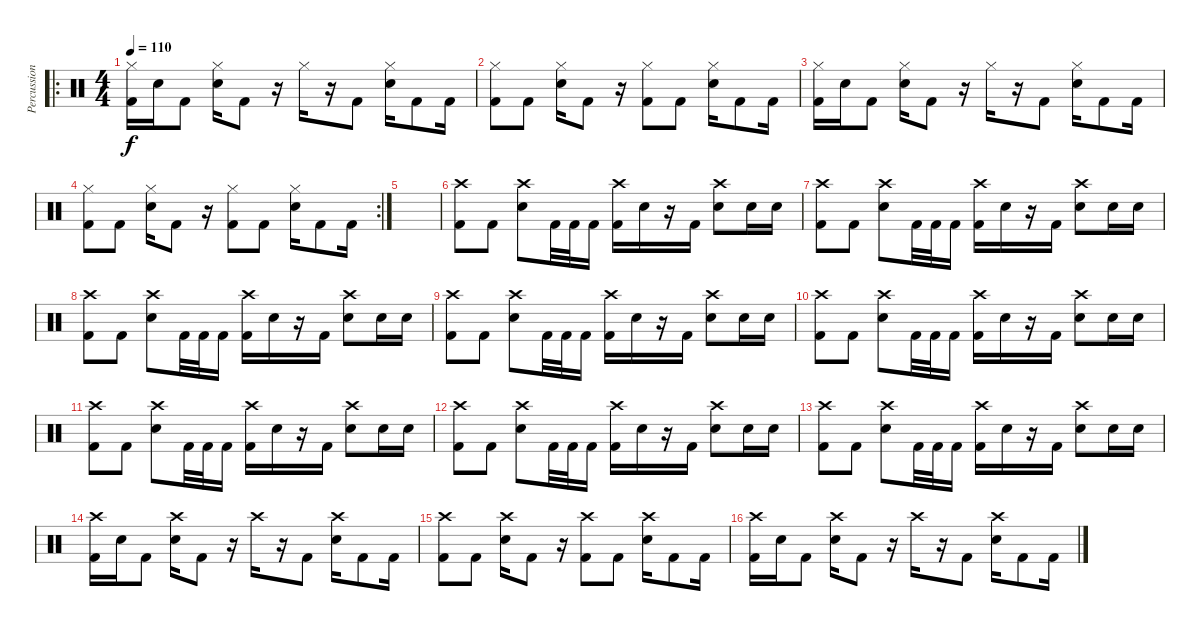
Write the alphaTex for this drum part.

\track ("Percussion" "Percussion") {instrument percussion}
\staff {score}
\articulation defaults
\ro
\ts (4 4)
\tempo 110
\clef neutral
\ks c
("Hi-Hat (closed)" "Kick (hit) 2").16{dy f} "Snare (hit) 2".16 "Kick (hit) 2".8 ("Hi-Hat (closed)" "Snare (hit) 2").16 "Kick (hit) 2".8 r.16 "Hi-Hat (closed)".16 r.16 "Kick (hit) 2".8 ("Hi-Hat (closed)" "Snare (hit) 2").16 "Kick (hit) 2".8 "Kick (hit) 2".16 |
("Hi-Hat (closed)" "Kick (hit) 2").8 "Kick (hit) 2".8 ("Hi-Hat (closed)" "Snare (hit) 2").16 "Kick (hit) 2".8 r.16 ("Hi-Hat (closed)" "Kick (hit) 2").8 "Kick (hit) 2".8 ("Hi-Hat (closed)" "Snare (hit) 2").16 "Kick (hit) 2".8 "Kick (hit) 2".16 |
("Hi-Hat (closed)" "Kick (hit) 2").16 "Snare (hit) 2".16 "Kick (hit) 2".8 ("Hi-Hat (closed)" "Snare (hit) 2").16 "Kick (hit) 2".8 r.16 "Hi-Hat (closed)".16 r.16 "Kick (hit) 2".8 ("Hi-Hat (closed)" "Snare (hit) 2").16 "Kick (hit) 2".8 "Kick (hit) 2".16 |
\rc 2
("Hi-Hat (closed)" "Kick (hit) 2").8 "Kick (hit) 2".8 ("Hi-Hat (closed)" "Snare (hit) 2").16 "Kick (hit) 2".8 r.16 ("Hi-Hat (closed)" "Kick (hit) 2").8 "Kick (hit) 2".8 ("Hi-Hat (closed)" "Snare (hit) 2").16 "Kick (hit) 2".8 "Kick (hit) 2".16 |
|
("Crash high (hit)" "Kick (hit) 2").8 "Kick (hit) 2".8 ("Crash high (hit)" "Snare (hit) 2").8 "Kick (hit) 2".32 "Kick (hit) 2".32 "Kick (hit) 2".16 ("Crash high (hit)" "Kick (hit) 2").16 "Snare (hit) 2".16 r.16 "Kick (hit) 2".16 ("Crash high (hit)" "Snare (hit) 2").8 "Snare (hit) 2".16 "Snare (hit) 2".16 |
("Crash high (hit)" "Kick (hit) 2").8 "Kick (hit) 2".8 ("Crash high (hit)" "Snare (hit) 2").8 "Kick (hit) 2".32 "Kick (hit) 2".32 "Kick (hit) 2".16 ("Crash high (hit)" "Kick (hit) 2").16 "Snare (hit) 2".16 r.16 "Kick (hit) 2".16 ("Crash high (hit)" "Snare (hit) 2").8 "Snare (hit) 2".16 "Snare (hit) 2".16 |
("Crash high (hit)" "Kick (hit) 2").8 "Kick (hit) 2".8 ("Crash high (hit)" "Snare (hit) 2").8 "Kick (hit) 2".32 "Kick (hit) 2".32 "Kick (hit) 2".16 ("Crash high (hit)" "Kick (hit) 2").16 "Snare (hit) 2".16 r.16 "Kick (hit) 2".16 ("Crash high (hit)" "Snare (hit) 2").8 "Snare (hit) 2".16 "Snare (hit) 2".16 |
("Crash high (hit)" "Kick (hit) 2").8 "Kick (hit) 2".8 ("Crash high (hit)" "Snare (hit) 2").8 "Kick (hit) 2".32 "Kick (hit) 2".32 "Kick (hit) 2".16 ("Crash high (hit)" "Kick (hit) 2").16 "Snare (hit) 2".16 r.16 "Kick (hit) 2".16 ("Crash high (hit)" "Snare (hit) 2").8 "Snare (hit) 2".16 "Snare (hit) 2".16 |
("Crash high (hit)" "Kick (hit) 2").8 "Kick (hit) 2".8 ("Crash high (hit)" "Snare (hit) 2").8 "Kick (hit) 2".32 "Kick (hit) 2".32 "Kick (hit) 2".16 ("Crash high (hit)" "Kick (hit) 2").16 "Snare (hit) 2".16 r.16 "Kick (hit) 2".16 ("Crash high (hit)" "Snare (hit) 2").8 "Snare (hit) 2".16 "Snare (hit) 2".16 |
("Crash high (hit)" "Kick (hit) 2").8 "Kick (hit) 2".8 ("Crash high (hit)" "Snare (hit) 2").8 "Kick (hit) 2".32 "Kick (hit) 2".32 "Kick (hit) 2".16 ("Crash high (hit)" "Kick (hit) 2").16 "Snare (hit) 2".16 r.16 "Kick (hit) 2".16 ("Crash high (hit)" "Snare (hit) 2").8 "Snare (hit) 2".16 "Snare (hit) 2".16 |
("Crash high (hit)" "Kick (hit) 2").8 "Kick (hit) 2".8 ("Crash high (hit)" "Snare (hit) 2").8 "Kick (hit) 2".32 "Kick (hit) 2".32 "Kick (hit) 2".16 ("Crash high (hit)" "Kick (hit) 2").16 "Snare (hit) 2".16 r.16 "Kick (hit) 2".16 ("Crash high (hit)" "Snare (hit) 2").8 "Snare (hit) 2".16 "Snare (hit) 2".16 |
("Crash high (hit)" "Kick (hit) 2").8 "Kick (hit) 2".8 ("Crash high (hit)" "Snare (hit) 2").8 "Kick (hit) 2".32 "Kick (hit) 2".32 "Kick (hit) 2".16 ("Crash high (hit)" "Kick (hit) 2").16 "Snare (hit) 2".16 r.16 "Kick (hit) 2".16 ("Crash high (hit)" "Snare (hit) 2").8 "Snare (hit) 2".16 "Snare (hit) 2".16 |
("Crash high (hit)" "Kick (hit) 2").16 "Snare (hit) 2".16 "Kick (hit) 2".8 ("Crash high (hit)" "Snare (hit) 2").16 "Kick (hit) 2".8 r.16 "Crash high (hit)".16 r.16 "Kick (hit) 2".8 ("Crash high (hit)" "Snare (hit) 2").16 "Kick (hit) 2".8 "Kick (hit) 2".16 |
("Crash high (hit)" "Kick (hit) 2").8 "Kick (hit) 2".8 ("Crash high (hit)" "Snare (hit) 2").16 "Kick (hit) 2".8 r.16 ("Crash high (hit)" "Kick (hit) 2").8 "Kick (hit) 2".8 ("Crash high (hit)" "Snare (hit) 2").16 "Kick (hit) 2".8 "Kick (hit) 2".16 |
("Crash high (hit)" "Kick (hit) 2").16 "Snare (hit) 2".16 "Kick (hit) 2".8 ("Crash high (hit)" "Snare (hit) 2").16 "Kick (hit) 2".8 r.16 "Crash high (hit)".16 r.16 "Kick (hit) 2".8 ("Crash high (hit)" "Snare (hit) 2").16 "Kick (hit) 2".8 "Kick (hit) 2".16
